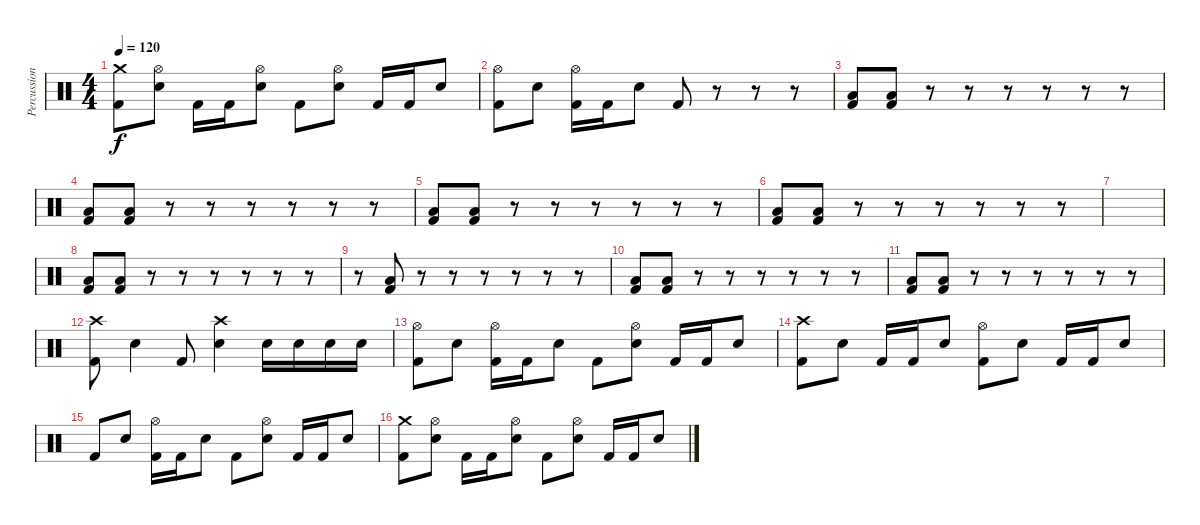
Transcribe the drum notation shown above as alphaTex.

\track ("Percussion" "Percussion") {instrument percussion}
\staff {score}
\articulation defaults
\ts (4 4)
\tempo 120
\clef neutral
\ks aminor
("Kick (hit) 2" "Crash medium (hit)").8{dy f} ("Snare (hit) 2" "Hi-Hat (open)").8 "Kick (hit) 2".16 "Kick (hit) 2".16 ("Snare (hit) 2" "Hi-Hat (open)").8 "Kick (hit) 2".8 ("Snare (hit) 2" "Hi-Hat (open)").8 "Kick (hit) 2".16 "Kick (hit) 2".16 "Snare (hit) 2".8 |
("Kick (hit) 2" "Hi-Hat (open)").8 "Snare (hit) 2".8 ("Kick (hit) 2" "Hi-Hat (open)").16 "Kick (hit) 2".16 "Snare (hit) 2".8 "Kick (hit) 2".8 r.8 r.8 r.8 |
("Low Tom (hit)" "Kick (hit) 2").8 ("Low Tom (hit)" "Kick (hit) 2").8 r.8 r.8 r.8 r.8 r.8 r.8 |
("Low Tom (hit)" "Kick (hit) 2").8 ("Low Tom (hit)" "Kick (hit) 2").8 r.8 r.8 r.8 r.8 r.8 r.8 |
("Low Tom (hit)" "Kick (hit) 2").8 ("Low Tom (hit)" "Kick (hit) 2").8 r.8 r.8 r.8 r.8 r.8 r.8 |
("Low Tom (hit)" "Kick (hit) 2").8 ("Low Tom (hit)" "Kick (hit) 2").8 r.8 r.8 r.8 r.8 r.8 r.8 |
|
("Low Tom (hit)" "Kick (hit) 2").8 ("Low Tom (hit)" "Kick (hit) 2").8 r.8 r.8 r.8 r.8 r.8 r.8 |
r.8 ("Low Tom (hit)" "Kick (hit) 2").8 r.8 r.8 r.8 r.8 r.8 r.8 |
("Low Tom (hit)" "Kick (hit) 2").8 ("Low Tom (hit)" "Kick (hit) 2").8 r.8 r.8 r.8 r.8 r.8 r.8 |
("Low Tom (hit)" "Kick (hit) 2").8 ("Low Tom (hit)" "Kick (hit) 2").8 r.8 r.8 r.8 r.8 r.8 r.8 |
\ks c
("Kick (hit) 2" "Crash high (hit)").8 "Snare (hit) 2".4 "Kick (hit) 2".8 ("Snare (hit) 2" "Crash high (hit)").4 "Snare (hit) 2".16 "Snare (hit) 2".16 "Snare (hit) 2".16 "Snare (hit) 2".16 |
\ks aminor
("Kick (hit) 2" "Hi-Hat (open)").8 "Snare (hit) 2".8 ("Kick (hit) 2" "Hi-Hat (open)").16 "Kick (hit) 2".16 "Snare (hit) 2".8 "Kick (hit) 2".8 ("Snare (hit) 2" "Hi-Hat (open)").8 "Kick (hit) 2".16 "Kick (hit) 2".16 "Snare (hit) 2".8 |
("Kick (hit) 2" "Crash high (hit)").8 "Snare (hit) 2".8 "Kick (hit) 2".16 "Kick (hit) 2".16 "Snare (hit) 2".8 ("Kick (hit) 2" "Hi-Hat (open)").8 "Snare (hit) 2".8 "Kick (hit) 2".16 "Kick (hit) 2".16 "Snare (hit) 2".8 |
\ks c "Kick (hit) 2".8 "Snare (hit) 2".8
("Kick (hit) 2" "Hi-Hat (open)").16 "Kick (hit) 2".16 "Snare (hit) 2".8 "Kick (hit) 2".8 ("Snare (hit) 2" "Hi-Hat (open)").8 "Kick (hit) 2".16 "Kick (hit) 2".16 "Snare (hit) 2".8 |
\ks aminor
("Kick (hit) 2" "Crash medium (hit)").8 ("Snare (hit) 2" "Hi-Hat (open)").8 "Kick (hit) 2".16 "Kick (hit) 2".16 ("Snare (hit) 2" "Hi-Hat (open)").8 "Kick (hit) 2".8 ("Snare (hit) 2" "Hi-Hat (open)").8 "Kick (hit) 2".16 "Kick (hit) 2".16 "Snare (hit) 2".8
